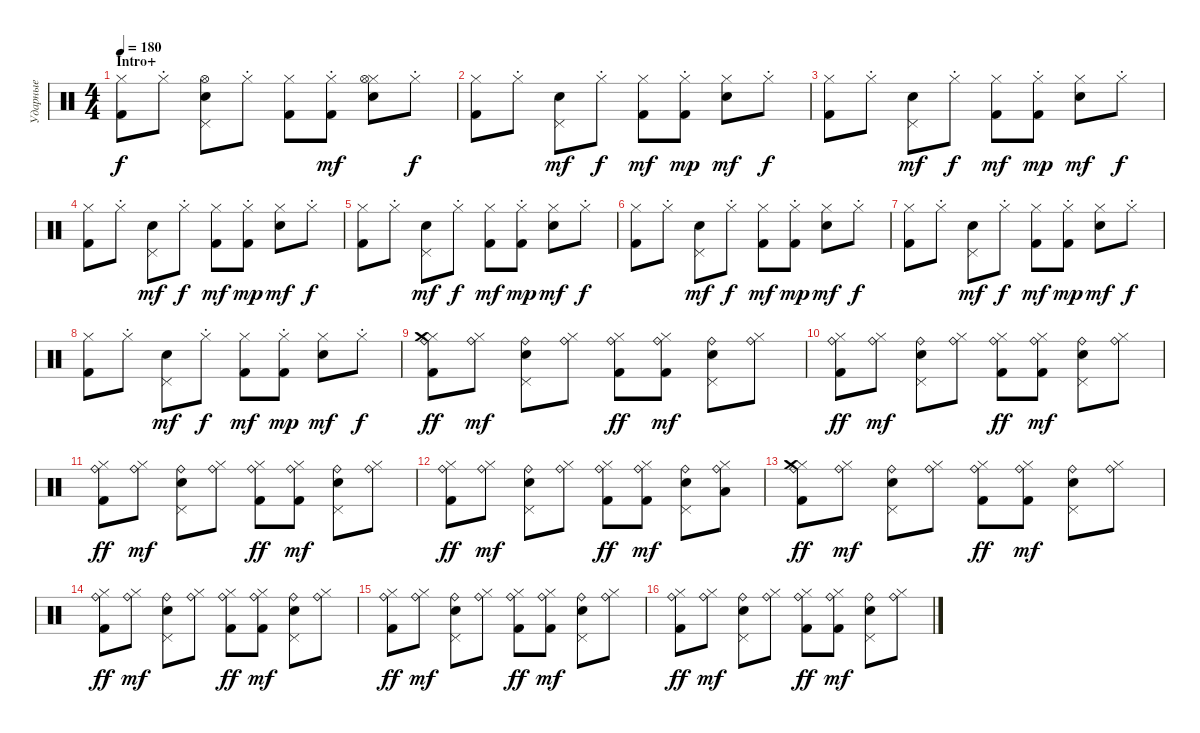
\track ("Ударные" "Ударные") {instrument percussion}
\staff {score}
\articulation defaults
\ts (4 4)
\section ("" "Intro+")
\tempo 180
\clef neutral
\ks c
("Hi-Hat (closed)" "Kick (hit) 2").8{dy f} "Hi-Hat (closed)"{st}.8 ("Pedal Hi-Hat (hit)" "Hi-Hat (open)" "Snare (hit) 2").8 "Hi-Hat (closed)"{st}.8 ("Hi-Hat (closed)" "Kick (hit) 2").8 ("Hi-Hat (closed)"{st} "Kick (hit) 2").8{dy mf} ("Hi-Hat (closed)" "Hi-Hat (open)" "Snare (hit) 2").8 "Hi-Hat (closed)"{st}.8{dy f} |
("Hi-Hat (closed)" "Kick (hit) 2").8 "Hi-Hat (closed)"{st}.8 ("Pedal Hi-Hat (hit)" "Snare (hit) 2").8{dy mf} "Hi-Hat (closed)"{st}.8{dy f} ("Hi-Hat (closed)" "Kick (hit) 2").8{dy mf} ("Hi-Hat (closed)"{st} "Kick (hit) 2").8{dy mp} ("Hi-Hat (closed)" "Snare (hit) 2").8{dy mf} "Hi-Hat (closed)"{st}.8{dy f} |
("Hi-Hat (closed)" "Kick (hit) 2").8 "Hi-Hat (closed)"{st}.8 ("Pedal Hi-Hat (hit)" "Snare (hit) 2").8{dy mf} "Hi-Hat (closed)"{st}.8{dy f} ("Hi-Hat (closed)" "Kick (hit) 2").8{dy mf} ("Hi-Hat (closed)"{st} "Kick (hit) 2").8{dy mp} ("Hi-Hat (closed)" "Snare (hit) 2").8{dy mf} "Hi-Hat (closed)"{st}.8{dy f} |
("Hi-Hat (closed)" "Kick (hit) 2").8 "Hi-Hat (closed)"{st}.8 ("Pedal Hi-Hat (hit)" "Snare (hit) 2").8{dy mf} "Hi-Hat (closed)"{st}.8{dy f} ("Hi-Hat (closed)" "Kick (hit) 2").8{dy mf} ("Hi-Hat (closed)"{st} "Kick (hit) 2").8{dy mp} ("Hi-Hat (closed)" "Snare (hit) 2").8{dy mf} "Hi-Hat (closed)"{st}.8{dy f} |
("Hi-Hat (closed)" "Kick (hit) 2").8 "Hi-Hat (closed)"{st}.8 ("Pedal Hi-Hat (hit)" "Snare (hit) 2").8{dy mf} "Hi-Hat (closed)"{st}.8{dy f} ("Hi-Hat (closed)" "Kick (hit) 2").8{dy mf} ("Hi-Hat (closed)"{st} "Kick (hit) 2").8{dy mp} ("Hi-Hat (closed)" "Snare (hit) 2").8{dy mf} "Hi-Hat (closed)"{st}.8{dy f} |
("Hi-Hat (closed)" "Kick (hit) 2").8 "Hi-Hat (closed)"{st}.8 ("Pedal Hi-Hat (hit)" "Snare (hit) 2").8{dy mf} "Hi-Hat (closed)"{st}.8{dy f} ("Hi-Hat (closed)" "Kick (hit) 2").8{dy mf} ("Hi-Hat (closed)"{st} "Kick (hit) 2").8{dy mp} ("Hi-Hat (closed)" "Snare (hit) 2").8{dy mf} "Hi-Hat (closed)"{st}.8{dy f} |
("Hi-Hat (closed)" "Kick (hit) 2").8 "Hi-Hat (closed)"{st}.8 ("Pedal Hi-Hat (hit)" "Snare (hit) 2").8{dy mf} "Hi-Hat (closed)"{st}.8{dy f} ("Hi-Hat (closed)" "Kick (hit) 2").8{dy mf} ("Hi-Hat (closed)"{st} "Kick (hit) 2").8{dy mp} ("Hi-Hat (closed)" "Snare (hit) 2").8{dy mf} "Hi-Hat (closed)"{st}.8{dy f} |
("Hi-Hat (closed)" "Kick (hit) 2").8 "Hi-Hat (closed)"{st}.8 ("Pedal Hi-Hat (hit)" "Snare (hit) 2").8{dy mf} "Hi-Hat (closed)"{st}.8{dy f} ("Hi-Hat (closed)" "Kick (hit) 2").8{dy mf} ("Hi-Hat (closed)"{st} "Kick (hit) 2").8{dy mp} ("Hi-Hat (closed)" "Snare (hit) 2").8{dy mf} "Hi-Hat (closed)"{st}.8{dy f} |
("Ride (bell)" "Hi-Hat (closed)" "Kick (hit) 2" "Crash medium (hit)").8{dy ff} ("Ride (bell)" "Hi-Hat (closed)").8{dy mf} ("Ride (bell)" "Snare (hit) 2" "Pedal Hi-Hat (hit)").8 ("Ride (bell)" "Hi-Hat (closed)").8 ("Ride (bell)" "Hi-Hat (closed)" "Kick (hit) 2").8{dy ff} ("Ride (bell)" "Hi-Hat (closed)" "Kick (hit) 2").8{dy mf} ("Ride (bell)" "Pedal Hi-Hat (hit)" "Snare (hit) 2").8 ("Ride (bell)" "Hi-Hat (closed)").8 |
("Ride (bell)" "Hi-Hat (closed)" "Kick (hit) 2").8{dy ff} ("Ride (bell)" "Hi-Hat (closed)").8{dy mf} ("Ride (bell)" "Snare (hit) 2" "Pedal Hi-Hat (hit)").8 ("Ride (bell)" "Hi-Hat (closed)").8 ("Ride (bell)" "Hi-Hat (closed)" "Kick (hit) 2").8{dy ff} ("Ride (bell)" "Hi-Hat (closed)" "Kick (hit) 2").8{dy mf} ("Ride (bell)" "Pedal Hi-Hat (hit)" "Snare (hit) 2").8 ("Ride (bell)" "Hi-Hat (closed)").8 |
("Ride (bell)" "Hi-Hat (closed)" "Kick (hit) 2").8{dy ff} ("Ride (bell)" "Hi-Hat (closed)").8{dy mf} ("Ride (bell)" "Snare (hit) 2" "Pedal Hi-Hat (hit)").8 ("Ride (bell)" "Hi-Hat (closed)").8 ("Ride (bell)" "Hi-Hat (closed)" "Kick (hit) 2").8{dy ff} ("Ride (bell)" "Hi-Hat (closed)" "Kick (hit) 2").8{dy mf} ("Ride (bell)" "Pedal Hi-Hat (hit)" "Snare (hit) 2").8 ("Ride (bell)" "Hi-Hat (closed)").8 |
("Ride (bell)" "Hi-Hat (closed)" "Kick (hit) 2").8{dy ff} ("Ride (bell)" "Hi-Hat (closed)").8{dy mf} ("Ride (bell)" "Snare (hit) 2" "Pedal Hi-Hat (hit)").8 ("Ride (bell)" "Hi-Hat (closed)").8 ("Ride (bell)" "Hi-Hat (closed)" "Kick (hit) 2").8{dy ff} ("Ride (bell)" "Hi-Hat (closed)" "Kick (hit) 2").8{dy mf} ("Ride (bell)" "Pedal Hi-Hat (hit)" "Snare (hit) 2").8 ("Ride (bell)" "Hi-Hat (closed)" "Low Tom (hit)").8 |
("Ride (bell)" "Hi-Hat (closed)" "Kick (hit) 2" "Crash medium (hit)").8{dy ff} ("Ride (bell)" "Hi-Hat (closed)").8{dy mf} ("Ride (bell)" "Snare (hit) 2" "Pedal Hi-Hat (hit)").8 ("Ride (bell)" "Hi-Hat (closed)").8 ("Ride (bell)" "Hi-Hat (closed)" "Kick (hit) 2").8{dy ff} ("Ride (bell)" "Hi-Hat (closed)" "Kick (hit) 2").8{dy mf} ("Ride (bell)" "Pedal Hi-Hat (hit)" "Snare (hit) 2").8 ("Ride (bell)" "Hi-Hat (closed)").8 |
("Ride (bell)" "Hi-Hat (closed)" "Kick (hit) 2").8{dy ff} ("Ride (bell)" "Hi-Hat (closed)").8{dy mf} ("Ride (bell)" "Snare (hit) 2" "Pedal Hi-Hat (hit)").8 ("Ride (bell)" "Hi-Hat (closed)").8 ("Ride (bell)" "Hi-Hat (closed)" "Kick (hit) 2").8{dy ff} ("Ride (bell)" "Hi-Hat (closed)" "Kick (hit) 2").8{dy mf} ("Ride (bell)" "Pedal Hi-Hat (hit)" "Snare (hit) 2").8 ("Ride (bell)" "Hi-Hat (closed)").8 |
("Ride (bell)" "Hi-Hat (closed)" "Kick (hit) 2").8{dy ff} ("Ride (bell)" "Hi-Hat (closed)").8{dy mf} ("Ride (bell)" "Snare (hit) 2" "Pedal Hi-Hat (hit)").8 ("Ride (bell)" "Hi-Hat (closed)").8 ("Ride (bell)" "Hi-Hat (closed)" "Kick (hit) 2").8{dy ff} ("Ride (bell)" "Hi-Hat (closed)" "Kick (hit) 2").8{dy mf} ("Ride (bell)" "Pedal Hi-Hat (hit)" "Snare (hit) 2").8 ("Ride (bell)" "Hi-Hat (closed)").8 |
("Ride (bell)" "Hi-Hat (closed)" "Kick (hit) 2").8{dy ff} ("Ride (bell)" "Hi-Hat (closed)").8{dy mf} ("Ride (bell)" "Snare (hit) 2" "Pedal Hi-Hat (hit)").8 ("Ride (bell)" "Hi-Hat (closed)").8 ("Ride (bell)" "Hi-Hat (closed)" "Kick (hit) 2").8{dy ff} ("Ride (bell)" "Hi-Hat (closed)" "Kick (hit) 2").8{dy mf} ("Ride (bell)" "Pedal Hi-Hat (hit)" "Snare (hit) 2").8 ("Ride (bell)" "Hi-Hat (closed)").8
